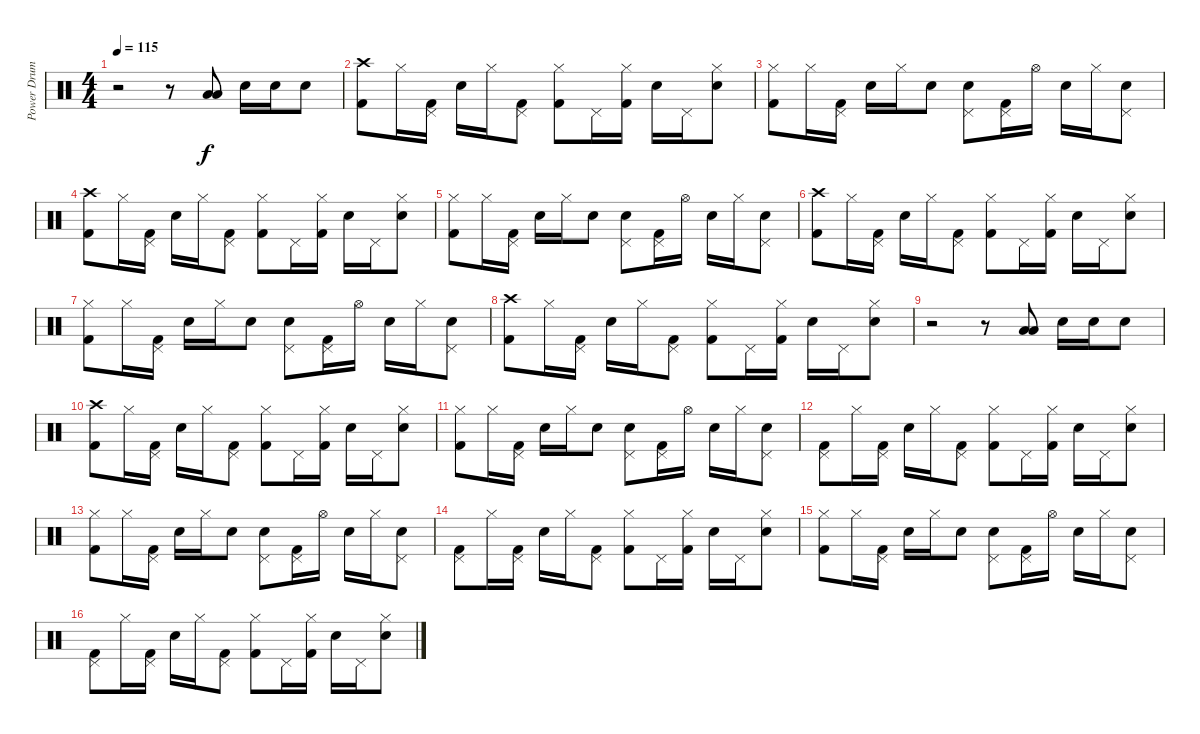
\track ("Power Drums" "Power Drum") {instrument percussion}
\staff {score}
\articulation defaults
\ts (4 4)
\tempo 115
\clef neutral
\ks c
r.2{dy f} r.8 ("Low Tom (hit)" "Low Tom (hit)").8 "Snare (hit) 2".16 "Electric Snare (hit)".16 "Snare (hit) 2".8 |
("Kick (hit) 2" "Crash high (hit)").8 "Hi-Hat (closed)".16 ("Kick (hit) 2" "Pedal Hi-Hat (hit)").16 "Snare (hit) 2".16 "Hi-Hat (closed)".16 ("Kick (hit) 2" "Pedal Hi-Hat (hit)").8 ("Kick (hit) 2" "Hi-Hat (closed)").8 "Pedal Hi-Hat (hit)".16 ("Kick (hit) 2" "Hi-Hat (closed)").16 "Snare (hit) 2".16 "Pedal Hi-Hat (hit)".16 ("Electric Snare (hit)" "Hi-Hat (closed)").8 |
("Kick (hit) 2" "Hi-Hat (closed)").8 "Hi-Hat (closed)".16 ("Kick (hit) 2" "Pedal Hi-Hat (hit)").16 "Snare (hit) 2".16 "Hi-Hat (closed)".16 "Snare (hit) 2".8 ("Electric Snare (hit)" "Pedal Hi-Hat (hit)").8 ("Kick (hit) 2" "Pedal Hi-Hat (hit)").16 "Hi-Hat (open)".16 "Snare (hit) 2".16 "Hi-Hat (closed)".16 ("Electric Snare (hit)" "Pedal Hi-Hat (hit)").8 |
("Kick (hit) 2" "Crash high (hit)").8 "Hi-Hat (closed)".16 ("Kick (hit) 2" "Pedal Hi-Hat (hit)").16 "Snare (hit) 2".16 "Hi-Hat (closed)".16 ("Kick (hit) 2" "Pedal Hi-Hat (hit)").8 ("Kick (hit) 2" "Hi-Hat (closed)").8 "Pedal Hi-Hat (hit)".16 ("Kick (hit) 2" "Hi-Hat (closed)").16 "Snare (hit) 2".16 "Pedal Hi-Hat (hit)".16 ("Electric Snare (hit)" "Hi-Hat (closed)").8 |
("Kick (hit) 2" "Hi-Hat (closed)").8 "Hi-Hat (closed)".16 ("Kick (hit) 2" "Pedal Hi-Hat (hit)").16 "Snare (hit) 2".16 "Hi-Hat (closed)".16 "Snare (hit) 2".8 ("Electric Snare (hit)" "Pedal Hi-Hat (hit)").8 ("Kick (hit) 2" "Pedal Hi-Hat (hit)").16 "Hi-Hat (open)".16 "Snare (hit) 2".16 "Hi-Hat (closed)".16 ("Electric Snare (hit)" "Pedal Hi-Hat (hit)").8 |
("Kick (hit) 2" "Crash high (hit)").8 "Hi-Hat (closed)".16 ("Kick (hit) 2" "Pedal Hi-Hat (hit)").16 "Snare (hit) 2".16 "Hi-Hat (closed)".16 ("Kick (hit) 2" "Pedal Hi-Hat (hit)").8 ("Kick (hit) 2" "Hi-Hat (closed)").8 "Pedal Hi-Hat (hit)".16 ("Kick (hit) 2" "Hi-Hat (closed)").16 "Snare (hit) 2".16 "Pedal Hi-Hat (hit)".16 ("Electric Snare (hit)" "Hi-Hat (closed)").8 |
("Kick (hit) 2" "Hi-Hat (closed)").8 "Hi-Hat (closed)".16 ("Kick (hit) 2" "Pedal Hi-Hat (hit)").16 "Snare (hit) 2".16 "Hi-Hat (closed)".16 "Snare (hit) 2".8 ("Electric Snare (hit)" "Pedal Hi-Hat (hit)").8 ("Kick (hit) 2" "Pedal Hi-Hat (hit)").16 "Hi-Hat (open)".16 "Snare (hit) 2".16 "Hi-Hat (closed)".16 ("Electric Snare (hit)" "Pedal Hi-Hat (hit)").8 |
("Kick (hit) 2" "Crash high (hit)").8 "Hi-Hat (closed)".16 ("Kick (hit) 2" "Pedal Hi-Hat (hit)").16 "Snare (hit) 2".16 "Hi-Hat (closed)".16 ("Kick (hit) 2" "Pedal Hi-Hat (hit)").8 ("Kick (hit) 2" "Hi-Hat (closed)").8 "Pedal Hi-Hat (hit)".16 ("Kick (hit) 2" "Hi-Hat (closed)").16 "Snare (hit) 2".16 "Pedal Hi-Hat (hit)".16 ("Electric Snare (hit)" "Hi-Hat (closed)").8 |
r.2 r.8 ("Low Tom (hit)" "Low Tom (hit)").8 "Snare (hit) 2".16 "Electric Snare (hit)".16 "Snare (hit) 2".8 |
("Kick (hit) 2" "Crash high (hit)").8 "Hi-Hat (closed)".16 ("Kick (hit) 2" "Pedal Hi-Hat (hit)").16 "Snare (hit) 2".16 "Hi-Hat (closed)".16 ("Kick (hit) 2" "Pedal Hi-Hat (hit)").8 ("Kick (hit) 2" "Hi-Hat (closed)").8 "Pedal Hi-Hat (hit)".16 ("Kick (hit) 2" "Hi-Hat (closed)").16 "Snare (hit) 2".16 "Pedal Hi-Hat (hit)".16 ("Electric Snare (hit)" "Hi-Hat (closed)").8 |
("Kick (hit) 2" "Hi-Hat (closed)").8 "Hi-Hat (closed)".16 ("Kick (hit) 2" "Pedal Hi-Hat (hit)").16 "Snare (hit) 2".16 "Hi-Hat (closed)".16 "Snare (hit) 2".8 ("Electric Snare (hit)" "Pedal Hi-Hat (hit)").8 ("Kick (hit) 2" "Pedal Hi-Hat (hit)").16 "Hi-Hat (open)".16 "Snare (hit) 2".16 "Hi-Hat (closed)".16 ("Electric Snare (hit)" "Pedal Hi-Hat (hit)").8 |
("Kick (hit) 2" "Pedal Hi-Hat (hit)").8 "Hi-Hat (closed)".16 ("Kick (hit) 2" "Pedal Hi-Hat (hit)").16 "Snare (hit) 2".16 "Hi-Hat (closed)".16 ("Kick (hit) 2" "Pedal Hi-Hat (hit)").8 ("Kick (hit) 2" "Hi-Hat (closed)").8 "Pedal Hi-Hat (hit)".16 ("Kick (hit) 2" "Hi-Hat (closed)").16 "Snare (hit) 2".16 "Pedal Hi-Hat (hit)".16 ("Electric Snare (hit)" "Hi-Hat (closed)").8 |
("Kick (hit) 2" "Hi-Hat (closed)").8 "Hi-Hat (closed)".16 ("Kick (hit) 2" "Pedal Hi-Hat (hit)").16 "Snare (hit) 2".16 "Hi-Hat (closed)".16 "Snare (hit) 2".8 ("Electric Snare (hit)" "Pedal Hi-Hat (hit)").8 ("Kick (hit) 2" "Pedal Hi-Hat (hit)").16 "Hi-Hat (open)".16 "Snare (hit) 2".16 "Hi-Hat (closed)".16 ("Electric Snare (hit)" "Pedal Hi-Hat (hit)").8 |
("Kick (hit) 2" "Pedal Hi-Hat (hit)").8 "Hi-Hat (closed)".16 ("Kick (hit) 2" "Pedal Hi-Hat (hit)").16 "Snare (hit) 2".16 "Hi-Hat (closed)".16 ("Kick (hit) 2" "Pedal Hi-Hat (hit)").8 ("Kick (hit) 2" "Hi-Hat (closed)").8 "Pedal Hi-Hat (hit)".16 ("Kick (hit) 2" "Hi-Hat (closed)").16 "Snare (hit) 2".16 "Pedal Hi-Hat (hit)".16 ("Electric Snare (hit)" "Hi-Hat (closed)").8 |
("Kick (hit) 2" "Hi-Hat (closed)").8 "Hi-Hat (closed)".16 ("Kick (hit) 2" "Pedal Hi-Hat (hit)").16 "Snare (hit) 2".16 "Hi-Hat (closed)".16 "Snare (hit) 2".8 ("Electric Snare (hit)" "Pedal Hi-Hat (hit)").8 ("Kick (hit) 2" "Pedal Hi-Hat (hit)").16 "Hi-Hat (open)".16 "Snare (hit) 2".16 "Hi-Hat (closed)".16 ("Electric Snare (hit)" "Pedal Hi-Hat (hit)").8 |
("Kick (hit) 2" "Pedal Hi-Hat (hit)").8 "Hi-Hat (closed)".16 ("Kick (hit) 2" "Pedal Hi-Hat (hit)").16 "Snare (hit) 2".16 "Hi-Hat (closed)".16 ("Kick (hit) 2" "Pedal Hi-Hat (hit)").8 ("Kick (hit) 2" "Hi-Hat (closed)").8 "Pedal Hi-Hat (hit)".16 ("Kick (hit) 2" "Hi-Hat (closed)").16 "Snare (hit) 2".16 "Pedal Hi-Hat (hit)".16 ("Electric Snare (hit)" "Hi-Hat (closed)").8
